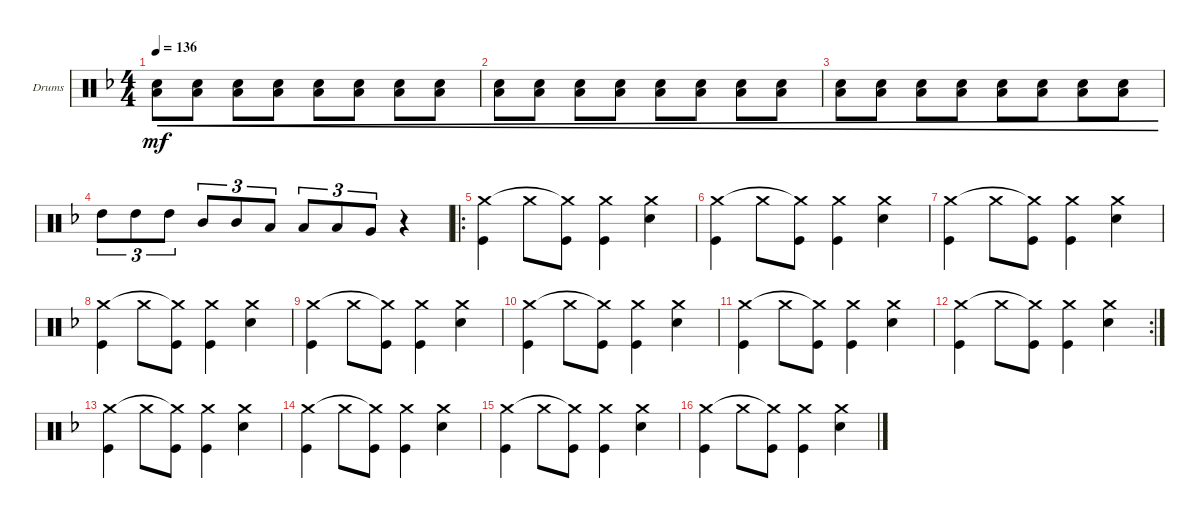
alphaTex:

\bracketExtendMode groupsimilarinstruments
\firstSystemTrackNameOrientation horizontal
\otherSystemsTrackNameOrientation horizontal
\track ("Drumkit" "Drums") {instrument percussion}
\staff {score}
\articulation defaults
\ts (4 4)
\tempo 136
\clef neutral
\scale
0.333333
\ks f
("Low Tom (hit)" "Snare (hit) 2").8{cre dy mf} ("Low Tom (hit)" "Snare (hit) 2").8{cre} ("Low Tom (hit)" "Snare (hit) 2").8{cre} ("Low Tom (hit)" "Snare (hit) 2").8{cre} ("Low Tom (hit)" "Snare (hit) 2").8{cre} ("Low Tom (hit)" "Snare (hit) 2").8{cre} ("Low Tom (hit)" "Snare (hit) 2").8{cre} ("Low Tom (hit)" "Snare (hit) 2").8{cre} |
\scale
0.333333 ("Low Tom (hit)" "Snare (hit) 2").8{cre} ("Low Tom (hit)" "Snare (hit) 2").8{cre} ("Low Tom (hit)" "Snare (hit) 2").8{cre} ("Low Tom (hit)" "Snare (hit) 2").8{cre} ("Low Tom (hit)" "Snare (hit) 2").8{cre} ("Low Tom (hit)" "Snare (hit) 2").8{cre} ("Low Tom (hit)" "Snare (hit) 2").8{cre} ("Low Tom (hit)" "Snare (hit) 2").8{cre} |
\scale
0.333333 ("Low Tom (hit)" "Snare (hit) 2").8{cre} ("Low Tom (hit)" "Snare (hit) 2").8{cre} ("Low Tom (hit)" "Snare (hit) 2").8{cre} ("Low Tom (hit)" "Snare (hit) 2").8{cre} ("Low Tom (hit)" "Snare (hit) 2").8{cre} ("Low Tom (hit)" "Snare (hit) 2").8{cre} ("Low Tom (hit)" "Snare (hit) 2").8{cre} ("Low Tom (hit)" "Snare (hit) 2").8{cre} |
\scale
0.333333 "High Tom (hit)".8{tu (3 2)} "High Tom (hit)".8{tu (3 2)} "High Tom (hit)".8{tu (3 2)} "Mid Tom (hit)".8{tu (3 2)} "Mid Tom (hit)".8{tu (3 2)} "Low Tom (hit)".8{tu (3 2)} "Low Tom (hit)".8{tu (3 2)} "Low Tom (hit)".8{tu (3 2)} "Very Low Tom (hit)".8{tu (3 2)} r.4 |
\ro
\scale
0.377778 ("Kick (hit)" "Crash medium (hit)").4 "Crash medium (hit)".8 ("Kick (hit)" "Crash medium (hit)"{t}).8 ("Kick (hit)" "Crash medium (hit)").4 ("Snare (hit) 2" "Crash medium (hit)").4 |
\scale
0.311111 ("Kick (hit)" "Crash medium (hit)").4 "Crash medium (hit)".8 ("Kick (hit)" "Crash medium (hit)"{t}).8 ("Kick (hit)" "Crash medium (hit)").4 ("Snare (hit) 2" "Crash medium (hit)").4 |
\scale
0.311111 ("Kick (hit)" "Crash medium (hit)").4 "Crash medium (hit)".8 ("Kick (hit)" "Crash medium (hit)"{t}).8 ("Kick (hit)" "Crash medium (hit)").4 ("Snare (hit) 2" "Crash medium (hit)").4 |
\scale
0.333333 ("Kick (hit)" "Crash medium (hit)").4 "Crash medium (hit)".8 ("Kick (hit)" "Crash medium (hit)"{t}).8 ("Kick (hit)" "Crash medium (hit)").4 ("Snare (hit) 2" "Crash medium (hit)").4 |
\scale
0.333333 ("Kick (hit)" "Crash medium (hit)").4 "Crash medium (hit)".8 ("Kick (hit)" "Crash medium (hit)"{t}).8 ("Kick (hit)" "Crash medium (hit)").4 ("Snare (hit) 2" "Crash medium (hit)").4 |
\scale
0.333333 ("Kick (hit)" "Crash medium (hit)").4 "Crash medium (hit)".8 ("Kick (hit)" "Crash medium (hit)"{t}).8 ("Kick (hit)" "Crash medium (hit)").4 ("Snare (hit) 2" "Crash medium (hit)").4 |
\scale
0.321839 ("Kick (hit)" "Crash medium (hit)").4 "Crash medium (hit)".8 ("Kick (hit)" "Crash medium (hit)"{t}).8 ("Kick (hit)" "Crash medium (hit)").4 ("Snare (hit) 2" "Crash medium (hit)").4 |
\rc 2
\scale
0.356322 ("Kick (hit)" "Crash medium (hit)").4 "Crash medium (hit)".8 ("Kick (hit)" "Crash medium (hit)"{t}).8 ("Kick (hit)" "Crash medium (hit)").4 ("Snare (hit) 2" "Crash medium (hit)").4 |
\scale
0.321839 ("Kick (hit)" "Crash medium (hit)").4 "Crash medium (hit)".8 ("Kick (hit)" "Crash medium (hit)"{t}).8 ("Kick (hit)" "Crash medium (hit)").4 ("Snare (hit) 2" "Crash medium (hit)").4 |
\scale
0.333333 ("Kick (hit)" "Crash medium (hit)").4 "Crash medium (hit)".8 ("Kick (hit)" "Crash medium (hit)"{t}).8 ("Kick (hit)" "Crash medium (hit)").4 ("Snare (hit) 2" "Crash medium (hit)").4 |
\scale
0.333333 ("Kick (hit)" "Crash medium (hit)").4 "Crash medium (hit)".8 ("Kick (hit)" "Crash medium (hit)"{t}).8 ("Kick (hit)" "Crash medium (hit)").4 ("Snare (hit) 2" "Crash medium (hit)").4 |
\scale
0.333333 ("Kick (hit)" "Crash medium (hit)").4 "Crash medium (hit)".8 ("Kick (hit)" "Crash medium (hit)"{t}).8 ("Kick (hit)" "Crash medium (hit)").4 ("Snare (hit) 2" "Crash medium (hit)").4
